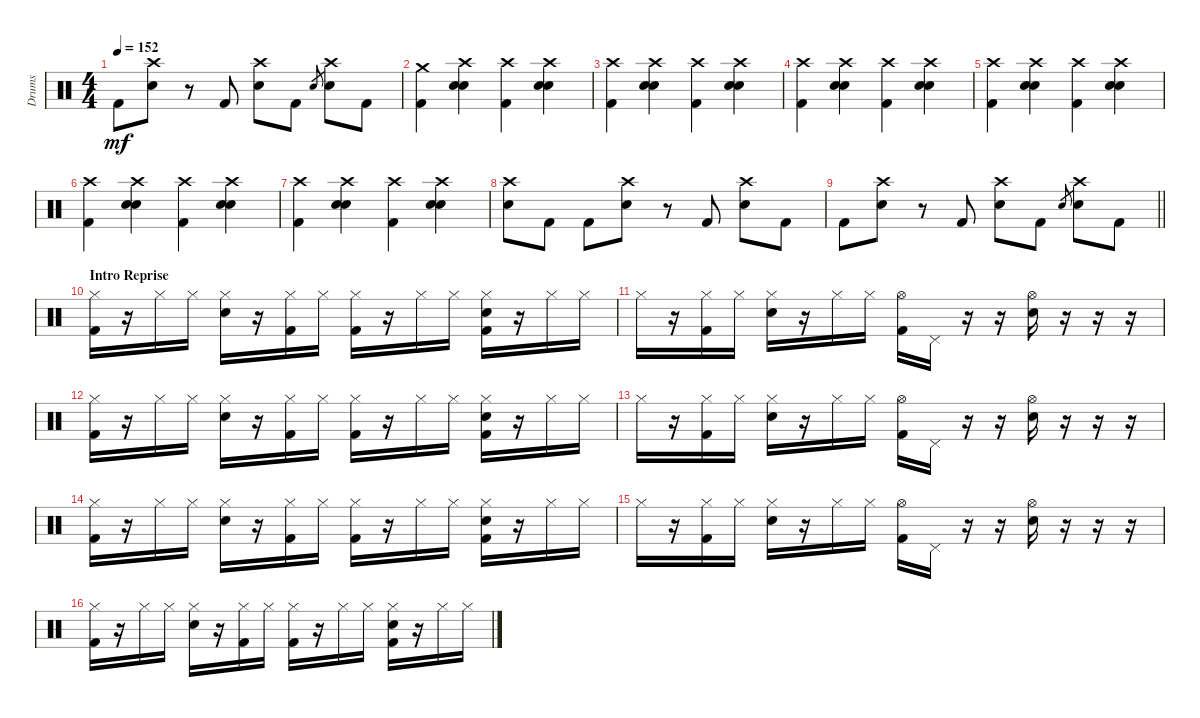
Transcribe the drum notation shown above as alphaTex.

\track ("Drums" "Drums") {instrument percussion}
\staff {score}
\articulation defaults
\ts (4 4)
\tempo 152
\clef neutral
\ks c "Kick (hit) 2".8{dy mf}
("Crash high (hit)" "Snare (hit) 2").8 r.8 "Kick (hit) 2".8 ("Crash high (hit)" "Snare (hit) 2").8 "Kick (hit) 2".8 "Snare (hit) 2".8{gr} ("Crash high (hit)" "Snare (hit) 2").8 "Kick (hit) 2".8 |
("Crash medium (hit)" "Kick (hit) 2").4 ("Crash high (hit)" "Electric Snare (hit)" "Snare (hit) 2").4 ("Crash high (hit)" "Kick (hit) 2").4 ("Crash high (hit)" "Electric Snare (hit)" "Snare (hit) 2").4 |
("Crash high (hit)" "Kick (hit) 2").4 ("Crash high (hit)" "Electric Snare (hit)" "Snare (hit) 2").4 ("Crash high (hit)" "Kick (hit) 2").4 ("Crash high (hit)" "Electric Snare (hit)" "Snare (hit) 2").4 |
("Crash high (hit)" "Kick (hit) 2").4 ("Crash high (hit)" "Electric Snare (hit)" "Snare (hit) 2").4 ("Crash high (hit)" "Kick (hit) 2").4 ("Crash high (hit)" "Electric Snare (hit)" "Snare (hit) 2").4 |
("Crash high (hit)" "Kick (hit) 2").4 ("Crash high (hit)" "Electric Snare (hit)" "Snare (hit) 2").4 ("Crash high (hit)" "Kick (hit) 2").4 ("Crash high (hit)" "Electric Snare (hit)" "Snare (hit) 2").4 |
("Crash high (hit)" "Kick (hit) 2").4 ("Crash high (hit)" "Electric Snare (hit)" "Snare (hit) 2").4 ("Crash high (hit)" "Kick (hit) 2").4 ("Crash high (hit)" "Electric Snare (hit)" "Snare (hit) 2").4 |
("Crash high (hit)" "Kick (hit) 2").4 ("Crash high (hit)" "Electric Snare (hit)" "Snare (hit) 2").4 ("Crash high (hit)" "Kick (hit) 2").4 ("Crash high (hit)" "Electric Snare (hit)" "Snare (hit) 2").4 |
("Crash high (hit)" "Snare (hit) 2").8 "Kick (hit) 2".8 "Kick (hit) 2".8 ("Crash high (hit)" "Snare (hit) 2").8 r.8 "Kick (hit) 2".8 ("Crash high (hit)" "Snare (hit) 2").8 "Kick (hit) 2".8 |
\barLineRight lightlight "Kick (hit) 2".8
("Crash high (hit)" "Snare (hit) 2").8 r.8 "Kick (hit) 2".8 ("Crash high (hit)" "Snare (hit) 2").8 "Kick (hit) 2".8 "Snare (hit) 2".8{gr} ("Crash high (hit)" "Snare (hit) 2").8 "Kick (hit) 2".8 |
\section ("" "Intro Reprise")
("Hi-Hat (closed)" "Kick (hit) 2").16 r.16 "Hi-Hat (closed)".16 "Hi-Hat (closed)".16 ("Hi-Hat (closed)" "Snare (hit) 2").16 r.16 ("Hi-Hat (closed)" "Kick (hit) 2").16 "Hi-Hat (closed)".16 ("Hi-Hat (closed)" "Kick (hit) 2").16 r.16 "Hi-Hat (closed)".16 "Hi-Hat (closed)".16 ("Hi-Hat (closed)" "Snare (hit) 2" "Kick (hit) 2").16 r.16 "Hi-Hat (closed)".16 "Hi-Hat (closed)".16 |
"Hi-Hat (closed)".16 r.16 ("Hi-Hat (closed)" "Kick (hit) 2").16 "Hi-Hat (closed)".16 ("Hi-Hat (closed)" "Snare (hit) 2").16 r.16 "Hi-Hat (closed)".16 "Hi-Hat (closed)".16 ("Hi-Hat (open)" "Kick (hit) 2").16 "Pedal Hi-Hat (hit)".16 r.16 r.16 ("Hi-Hat (open)" "Snare (hit) 2").16 r.16 r.16 r.16 |
("Hi-Hat (closed)" "Kick (hit) 2").16 r.16 "Hi-Hat (closed)".16 "Hi-Hat (closed)".16 ("Hi-Hat (closed)" "Snare (hit) 2").16 r.16 ("Hi-Hat (closed)" "Kick (hit) 2").16 "Hi-Hat (closed)".16 ("Hi-Hat (closed)" "Kick (hit) 2").16 r.16 "Hi-Hat (closed)".16 "Hi-Hat (closed)".16 ("Hi-Hat (closed)" "Snare (hit) 2" "Kick (hit) 2").16 r.16 "Hi-Hat (closed)".16 "Hi-Hat (closed)".16 |
"Hi-Hat (closed)".16 r.16 ("Hi-Hat (closed)" "Kick (hit) 2").16 "Hi-Hat (closed)".16 ("Hi-Hat (closed)" "Snare (hit) 2").16 r.16 "Hi-Hat (closed)".16 "Hi-Hat (closed)".16 ("Hi-Hat (open)" "Kick (hit) 2").16 "Pedal Hi-Hat (hit)".16 r.16 r.16 ("Hi-Hat (open)" "Snare (hit) 2").16 r.16 r.16 r.16 |
("Hi-Hat (closed)" "Kick (hit) 2").16 r.16 "Hi-Hat (closed)".16 "Hi-Hat (closed)".16 ("Hi-Hat (closed)" "Snare (hit) 2").16 r.16 ("Hi-Hat (closed)" "Kick (hit) 2").16 "Hi-Hat (closed)".16 ("Hi-Hat (closed)" "Kick (hit) 2").16 r.16 "Hi-Hat (closed)".16 "Hi-Hat (closed)".16 ("Hi-Hat (closed)" "Snare (hit) 2" "Kick (hit) 2").16 r.16 "Hi-Hat (closed)".16 "Hi-Hat (closed)".16 |
"Hi-Hat (closed)".16 r.16 ("Hi-Hat (closed)" "Kick (hit) 2").16 "Hi-Hat (closed)".16 ("Hi-Hat (closed)" "Snare (hit) 2").16 r.16 "Hi-Hat (closed)".16 "Hi-Hat (closed)".16 ("Hi-Hat (open)" "Kick (hit) 2").16 "Pedal Hi-Hat (hit)".16 r.16 r.16 ("Hi-Hat (open)" "Snare (hit) 2").16 r.16 r.16 r.16 |
("Hi-Hat (closed)" "Kick (hit) 2").16 r.16 "Hi-Hat (closed)".16 "Hi-Hat (closed)".16 ("Hi-Hat (closed)" "Snare (hit) 2").16 r.16 ("Hi-Hat (closed)" "Kick (hit) 2").16 "Hi-Hat (closed)".16 ("Hi-Hat (closed)" "Kick (hit) 2").16 r.16 "Hi-Hat (closed)".16 "Hi-Hat (closed)".16 ("Hi-Hat (closed)" "Snare (hit) 2" "Kick (hit) 2").16 r.16 "Hi-Hat (closed)".16 "Hi-Hat (closed)".16
